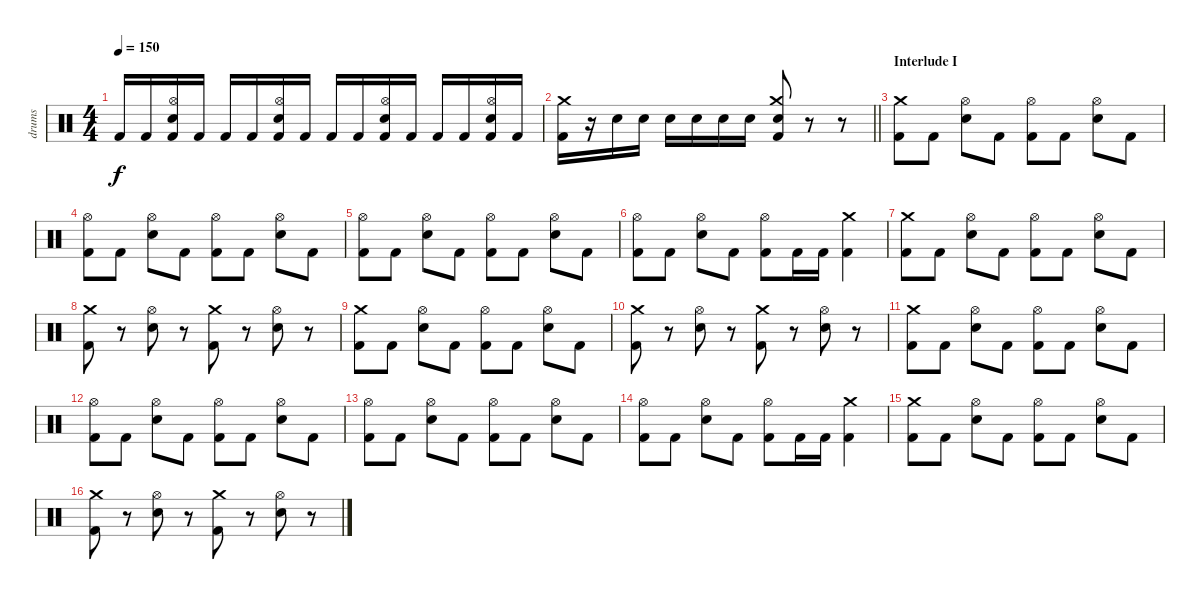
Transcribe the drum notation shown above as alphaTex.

\track ("drums" "drums") {instrument percussion}
\staff {score}
\articulation defaults
\ts (4 4)
\tempo 150
\clef neutral
\ks c "Kick (hit) 2".16{dy f} "Kick (hit) 2".16
("Hi-Hat (open)" "Electric Snare (hit)" "Kick (hit) 2").16 "Kick (hit) 2".16 "Kick (hit) 2".16 "Kick (hit) 2".16 ("Hi-Hat (open)" "Electric Snare (hit)" "Kick (hit) 2").16 "Kick (hit) 2".16 "Kick (hit) 2".16 "Kick (hit) 2".16 ("Hi-Hat (open)" "Electric Snare (hit)" "Kick (hit) 2").16 "Kick (hit) 2".16 "Kick (hit) 2".16 "Kick (hit) 2".16 ("Hi-Hat (open)" "Electric Snare (hit)" "Kick (hit) 2").16 "Kick (hit) 2".16 |
\barLineRight lightlight
("Crash medium (hit)" "Kick (hit) 2").16 r.16 "Electric Snare (hit)".16 "Electric Snare (hit)".16 "Electric Snare (hit)".16 "Snare (hit) 2".16 "Snare (hit) 2".16 "Snare (hit) 2".16 ("Crash medium (hit)" "Snare (hit) 2" "Kick (hit) 2").8 r.8 r.8 |
\section ("" "Interlude I")
("Crash medium (hit)" "Kick (hit) 2").8 "Kick (hit) 2".8 ("Hi-Hat (open)" "Electric Snare (hit)").8 "Kick (hit) 2".8 ("Hi-Hat (open)" "Kick (hit) 2").8 "Kick (hit) 2".8 ("Hi-Hat (open)" "Electric Snare (hit)").8 "Kick (hit) 2".8 |
("Hi-Hat (open)" "Kick (hit) 2").8 "Kick (hit) 2".8 ("Hi-Hat (open)" "Electric Snare (hit)").8 "Kick (hit) 2".8 ("Hi-Hat (open)" "Kick (hit) 2").8 "Kick (hit) 2".8 ("Hi-Hat (open)" "Electric Snare (hit)").8 "Kick (hit) 2".8 |
("Hi-Hat (open)" "Kick (hit) 2").8 "Kick (hit) 2".8 ("Hi-Hat (open)" "Electric Snare (hit)").8 "Kick (hit) 2".8 ("Hi-Hat (open)" "Kick (hit) 2").8 "Kick (hit) 2".8 ("Hi-Hat (open)" "Electric Snare (hit)").8 "Kick (hit) 2".8 |
("Hi-Hat (open)" "Kick (hit) 2").8 "Kick (hit) 2".8 ("Hi-Hat (open)" "Electric Snare (hit)").8 "Kick (hit) 2".8 ("Hi-Hat (open)" "Kick (hit) 2").8 "Kick (hit) 2".16 "Kick (hit) 2".16 ("Crash medium (hit)" "Kick (hit) 2").4 |
("Crash medium (hit)" "Kick (hit) 2").8 "Kick (hit) 2".8 ("Hi-Hat (open)" "Electric Snare (hit)").8 "Kick (hit) 2".8 ("Hi-Hat (open)" "Kick (hit) 2").8 "Kick (hit) 2".8 ("Hi-Hat (open)" "Electric Snare (hit)").8 "Kick (hit) 2".8 |
("Crash medium (hit)" "Kick (hit) 2").8 r.8 ("Hi-Hat (open)" "Electric Snare (hit)").8 r.8 ("Crash medium (hit)" "Kick (hit) 2").8 r.8 ("Hi-Hat (open)" "Electric Snare (hit)").8 r.8 |
("Crash medium (hit)" "Kick (hit) 2").8 "Kick (hit) 2".8 ("Hi-Hat (open)" "Electric Snare (hit)").8 "Kick (hit) 2".8 ("Hi-Hat (open)" "Kick (hit) 2").8 "Kick (hit) 2".8 ("Hi-Hat (open)" "Electric Snare (hit)").8 "Kick (hit) 2".8 |
("Crash medium (hit)" "Kick (hit) 2").8 r.8 ("Hi-Hat (open)" "Electric Snare (hit)").8 r.8 ("Crash medium (hit)" "Kick (hit) 2").8 r.8 ("Hi-Hat (open)" "Electric Snare (hit)").8 r.8 |
("Crash medium (hit)" "Kick (hit) 2").8 "Kick (hit) 2".8 ("Hi-Hat (open)" "Electric Snare (hit)").8 "Kick (hit) 2".8 ("Hi-Hat (open)" "Kick (hit) 2").8 "Kick (hit) 2".8 ("Hi-Hat (open)" "Electric Snare (hit)").8 "Kick (hit) 2".8 |
("Hi-Hat (open)" "Kick (hit) 2").8 "Kick (hit) 2".8 ("Hi-Hat (open)" "Electric Snare (hit)").8 "Kick (hit) 2".8 ("Hi-Hat (open)" "Kick (hit) 2").8 "Kick (hit) 2".8 ("Hi-Hat (open)" "Electric Snare (hit)").8 "Kick (hit) 2".8 |
("Hi-Hat (open)" "Kick (hit) 2").8 "Kick (hit) 2".8 ("Hi-Hat (open)" "Electric Snare (hit)").8 "Kick (hit) 2".8 ("Hi-Hat (open)" "Kick (hit) 2").8 "Kick (hit) 2".8 ("Hi-Hat (open)" "Electric Snare (hit)").8 "Kick (hit) 2".8 |
("Hi-Hat (open)" "Kick (hit) 2").8 "Kick (hit) 2".8 ("Hi-Hat (open)" "Electric Snare (hit)").8 "Kick (hit) 2".8 ("Hi-Hat (open)" "Kick (hit) 2").8 "Kick (hit) 2".16 "Kick (hit) 2".16 ("Crash medium (hit)" "Kick (hit) 2").4 |
("Crash medium (hit)" "Kick (hit) 2").8 "Kick (hit) 2".8 ("Hi-Hat (open)" "Electric Snare (hit)").8 "Kick (hit) 2".8 ("Hi-Hat (open)" "Kick (hit) 2").8 "Kick (hit) 2".8 ("Hi-Hat (open)" "Electric Snare (hit)").8 "Kick (hit) 2".8 |
("Crash medium (hit)" "Kick (hit) 2").8 r.8 ("Hi-Hat (open)" "Electric Snare (hit)").8 r.8 ("Crash medium (hit)" "Kick (hit) 2").8 r.8 ("Hi-Hat (open)" "Electric Snare (hit)").8 r.8
